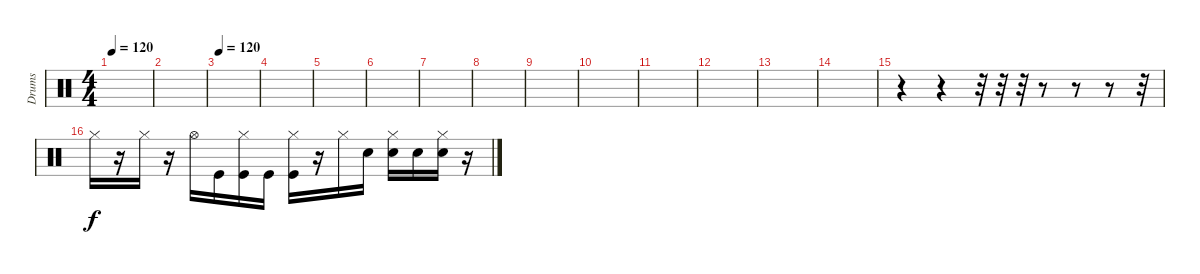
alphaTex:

\track ("Drums" "Drums") {instrument percussion}
\staff {score}
\articulation defaults
\ts (4 4)
\tempo 120
\clef neutral
\ks c
|
|
\tempo 120
|
|
|
|
|
|
|
|
|
|
|
|
r.4 r.4 r.32 r.32 r.32 r.8 r.8 r.8 r.32 |
"Hi-Hat (closed)".16 r.16 "Hi-Hat (closed)".16 r.16 "Hi-Hat (open)".16 "Kick (hit)".16 ("Hi-Hat (closed)" "Kick (hit)").16 "Kick (hit)".16 ("Hi-Hat (closed)" "Kick (hit)").16 r.16 "Hi-Hat (closed)".16 "Electric Snare (hit)".16 ("Hi-Hat (closed)" "Electric Snare (hit)").16 "Electric Snare (hit)".16 ("Hi-Hat (closed)" "Electric Snare (hit)").16 r.16
